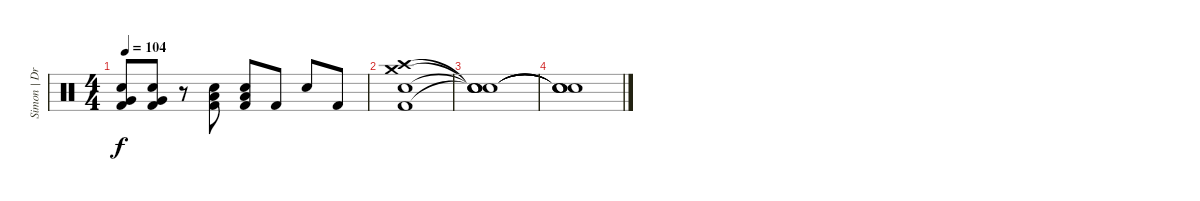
\track ("Simon | Drums" "Simon | Dr") {instrument percussion}
\staff {score}
\articulation defaults
\ts (4 4)
\tempo 104
\clef neutral
\ks c
("Very Low Tom (hit)" "Electric Snare (hit)" "Kick (hit) 2").8{dy f} ("Very Low Tom (hit)" "Electric Snare (hit)" "Kick (hit) 2").8 r.8 ("Low Floor Tom (hit)" "Electric Snare (hit)" "Kick (hit) 2").8 ("Low Floor Tom (hit)" "Electric Snare (hit)" "Kick (hit) 2").8 "Kick (hit) 2".8 "Electric Snare (hit)".8 "Kick (hit) 2".8 |
("Crash high (hit)" "Crash medium (hit)" "Electric Snare (hit)" "Kick (hit) 2").1 |
("Snare (hit)"{t} "Snare (hit)"{t} "Snare (hit)"{t} "Snare (hit)"{t}).1 |
("Snare (hit)"{t} "Snare (hit)"{t} "Snare (hit)"{t} "Snare (hit)"{t}).1
